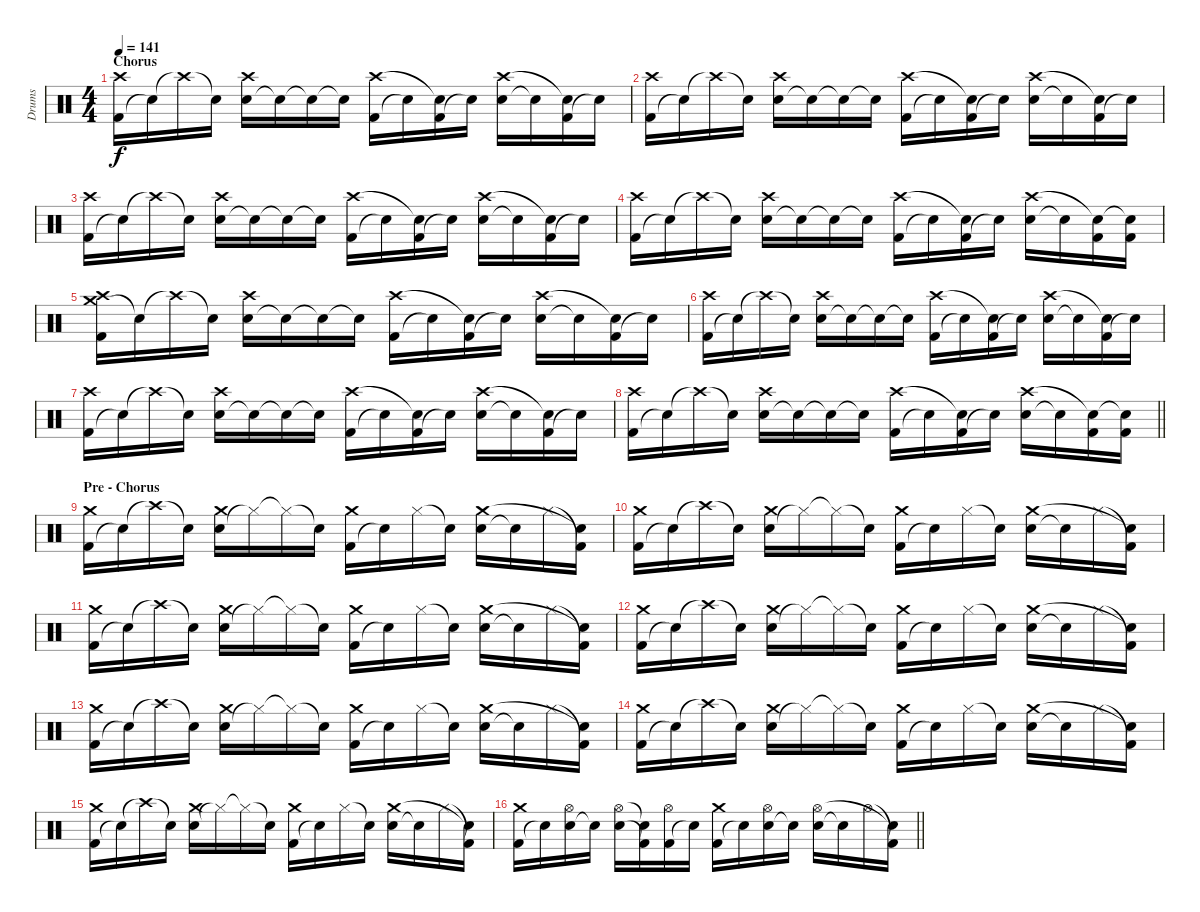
\track ("Drums" "Drums") {instrument percussion}
\staff {score}
\articulation defaults
\ts (4 4)
\section ("" "Chorus")
\tempo 141
\clef neutral
\ks c
("Kick (hit) 2" "Crash high (hit)").16{dy f} "Snare (hit)"{t}.16 "Crash high (hit)"{t}.16 "Snare (hit)"{t}.16 ("Snare (hit) 2" "Crash high (hit)").16 "Snare (hit)"{t}.16 "Snare (hit)"{t}.16 "Snare (hit)"{t}.16 ("Kick (hit) 2" "Crash high (hit)").16 "Snare (hit)"{t}.16 ("Kick (hit) 2" "Snare (hit)"{t}).16 "Snare (hit)"{t}.16 ("Snare (hit) 2" "Crash high (hit)").16 "Snare (hit)"{t}.16 ("Kick (hit) 2" "Snare (hit)"{t}).16 "Snare (hit)"{t}.16 |
("Kick (hit) 2" "Crash high (hit)").16 "Snare (hit)"{t}.16 "Crash high (hit)"{t}.16 "Snare (hit)"{t}.16 ("Snare (hit) 2" "Crash high (hit)").16 "Snare (hit)"{t}.16 "Snare (hit)"{t}.16 "Snare (hit)"{t}.16 ("Kick (hit) 2" "Crash high (hit)").16 "Snare (hit)"{t}.16 ("Kick (hit) 2" "Snare (hit)"{t}).16 "Snare (hit)"{t}.16 ("Snare (hit) 2" "Crash high (hit)").16 "Snare (hit)"{t}.16 ("Kick (hit) 2" "Snare (hit)"{t}).16 "Snare (hit)"{t}.16 |
("Kick (hit) 2" "Crash high (hit)").16 "Snare (hit)"{t}.16 "Crash high (hit)"{t}.16 "Snare (hit)"{t}.16 ("Snare (hit) 2" "Crash high (hit)").16 "Snare (hit)"{t}.16 "Snare (hit)"{t}.16 "Snare (hit)"{t}.16 ("Kick (hit) 2" "Crash high (hit)").16 "Snare (hit)"{t}.16 ("Kick (hit) 2" "Snare (hit)"{t}).16 "Snare (hit)"{t}.16 ("Snare (hit) 2" "Crash high (hit)").16 "Snare (hit)"{t}.16 ("Kick (hit) 2" "Snare (hit)"{t}).16 "Snare (hit)"{t}.16 |
("Kick (hit) 2" "Crash high (hit)").16 "Snare (hit)"{t}.16 "Crash high (hit)"{t}.16 "Snare (hit)"{t}.16 ("Snare (hit) 2" "Crash high (hit)").16 "Snare (hit)"{t}.16 "Snare (hit)"{t}.16 "Snare (hit)"{t}.16 ("Kick (hit) 2" "Crash high (hit)").16 "Snare (hit)"{t}.16 ("Kick (hit) 2" "Snare (hit)"{t}).16 "Snare (hit)"{t}.16 ("Snare (hit) 2" "Crash high (hit)").16 "Snare (hit)"{t}.16 ("Kick (hit) 2" "Snare (hit)"{t}).16 ("Kick (hit) 2" "Snare (hit)"{t}).16 |
("Crash medium (hit)" "Kick (hit) 2" "Crash high (hit)").16 "Snare (hit)"{t}.16 "Crash high (hit)"{t}.16 "Snare (hit)"{t}.16 ("Snare (hit) 2" "Crash high (hit)").16 "Snare (hit)"{t}.16 "Snare (hit)"{t}.16 "Snare (hit)"{t}.16 ("Kick (hit) 2" "Crash high (hit)").16 "Snare (hit)"{t}.16 ("Kick (hit) 2" "Snare (hit)"{t}).16 "Snare (hit)"{t}.16 ("Snare (hit) 2" "Crash high (hit)").16 "Snare (hit)"{t}.16 ("Kick (hit) 2" "Snare (hit)"{t}).16 "Snare (hit)"{t}.16 |
("Kick (hit) 2" "Crash high (hit)").16 "Snare (hit)"{t}.16 "Crash high (hit)"{t}.16 "Snare (hit)"{t}.16 ("Snare (hit) 2" "Crash high (hit)").16 "Snare (hit)"{t}.16 "Snare (hit)"{t}.16 "Snare (hit)"{t}.16 ("Kick (hit) 2" "Crash high (hit)").16 "Snare (hit)"{t}.16 ("Kick (hit) 2" "Snare (hit)"{t}).16 "Snare (hit)"{t}.16 ("Snare (hit) 2" "Crash high (hit)").16 "Snare (hit)"{t}.16 ("Kick (hit) 2" "Snare (hit)"{t}).16 "Snare (hit)"{t}.16 |
("Kick (hit) 2" "Crash high (hit)").16 "Snare (hit)"{t}.16 "Crash high (hit)"{t}.16 "Snare (hit)"{t}.16 ("Snare (hit) 2" "Crash high (hit)").16 "Snare (hit)"{t}.16 "Snare (hit)"{t}.16 "Snare (hit)"{t}.16 ("Kick (hit) 2" "Crash high (hit)").16 "Snare (hit)"{t}.16 ("Kick (hit) 2" "Snare (hit)"{t}).16 "Snare (hit)"{t}.16 ("Snare (hit) 2" "Crash high (hit)").16 "Snare (hit)"{t}.16 ("Kick (hit) 2" "Snare (hit)"{t}).16 "Snare (hit)"{t}.16 |
\barLineRight lightlight
("Kick (hit) 2" "Crash high (hit)").16 "Snare (hit)"{t}.16 "Crash high (hit)"{t}.16 "Snare (hit)"{t}.16 ("Snare (hit) 2" "Crash high (hit)").16 "Snare (hit)"{t}.16 "Snare (hit)"{t}.16 "Snare (hit)"{t}.16 ("Kick (hit) 2" "Crash high (hit)").16 "Snare (hit)"{t}.16 ("Kick (hit) 2" "Snare (hit)"{t}).16 "Snare (hit)"{t}.16 ("Snare (hit) 2" "Crash high (hit)").16 "Snare (hit)"{t}.16 ("Kick (hit) 2" "Snare (hit)"{t}).16 ("Kick (hit) 2" "Snare (hit)"{t}).16 |
\section ("" "Pre - Chorus")
("Kick (hit) 2" "Crash medium (hit)").16 "Snare (hit)"{t}.16 "Crash high (hit)"{t}.16 "Snare (hit)"{t}.16 ("Snare (hit) 2" "Crash medium (hit)").16 "Hi-Hat (closed)"{t}.16 "Hi-Hat (closed)"{t}.16 "Snare (hit)"{t}.16 ("Kick (hit) 2" "Crash medium (hit)").16 "Snare (hit)"{t}.16 "Hi-Hat (closed)".16 "Snare (hit)"{t}.16 ("Snare (hit) 2" "Crash medium (hit)").16 "Snare (hit)"{t}.16 "Hi-Hat (closed)".16 ("Kick (hit) 2"{t} "Snare (hit)"{t}).16 |
("Kick (hit) 2" "Crash medium (hit)").16 "Snare (hit)"{t}.16 "Crash high (hit)"{t}.16 "Snare (hit)"{t}.16 ("Snare (hit) 2" "Crash medium (hit)").16 "Hi-Hat (closed)"{t}.16 "Hi-Hat (closed)"{t}.16 "Snare (hit)"{t}.16 ("Kick (hit) 2" "Crash medium (hit)").16 "Snare (hit)"{t}.16 "Hi-Hat (closed)".16 "Snare (hit)"{t}.16 ("Snare (hit) 2" "Crash medium (hit)").16 "Snare (hit)"{t}.16 "Hi-Hat (closed)".16 ("Kick (hit) 2"{t} "Snare (hit)"{t}).16 |
("Kick (hit) 2" "Crash medium (hit)").16 "Snare (hit)"{t}.16 "Crash high (hit)"{t}.16 "Snare (hit)"{t}.16 ("Snare (hit) 2" "Crash medium (hit)").16 "Hi-Hat (closed)"{t}.16 "Hi-Hat (closed)"{t}.16 "Snare (hit)"{t}.16 ("Kick (hit) 2" "Crash medium (hit)").16 "Snare (hit)"{t}.16 "Hi-Hat (closed)".16 "Snare (hit)"{t}.16 ("Snare (hit) 2" "Crash medium (hit)").16 "Snare (hit)"{t}.16 "Hi-Hat (closed)".16 ("Kick (hit) 2"{t} "Snare (hit)"{t}).16 |
("Kick (hit) 2" "Crash medium (hit)").16 "Snare (hit)"{t}.16 "Crash high (hit)"{t}.16 "Snare (hit)"{t}.16 ("Snare (hit) 2" "Crash medium (hit)").16 "Hi-Hat (closed)"{t}.16 "Hi-Hat (closed)"{t}.16 "Snare (hit)"{t}.16 ("Kick (hit) 2" "Crash medium (hit)").16 "Snare (hit)"{t}.16 "Hi-Hat (closed)".16 "Snare (hit)"{t}.16 ("Snare (hit) 2" "Crash medium (hit)").16 "Snare (hit)"{t}.16 "Hi-Hat (closed)".16 ("Kick (hit) 2"{t} "Snare (hit)"{t}).16 |
("Kick (hit) 2" "Crash medium (hit)").16 "Snare (hit)"{t}.16 "Crash high (hit)"{t}.16 "Snare (hit)"{t}.16 ("Snare (hit) 2" "Crash medium (hit)").16 "Hi-Hat (closed)"{t}.16 "Hi-Hat (closed)"{t}.16 "Snare (hit)"{t}.16 ("Kick (hit) 2" "Crash medium (hit)").16 "Snare (hit)"{t}.16 "Hi-Hat (closed)".16 "Snare (hit)"{t}.16 ("Snare (hit) 2" "Crash medium (hit)").16 "Snare (hit)"{t}.16 "Hi-Hat (closed)".16 ("Kick (hit) 2"{t} "Snare (hit)"{t}).16 |
("Kick (hit) 2" "Crash medium (hit)").16 "Snare (hit)"{t}.16 "Crash high (hit)"{t}.16 "Snare (hit)"{t}.16 ("Snare (hit) 2" "Crash medium (hit)").16 "Hi-Hat (closed)"{t}.16 "Hi-Hat (closed)"{t}.16 "Snare (hit)"{t}.16 ("Kick (hit) 2" "Crash medium (hit)").16 "Snare (hit)"{t}.16 "Hi-Hat (closed)".16 "Snare (hit)"{t}.16 ("Snare (hit) 2" "Crash medium (hit)").16 "Snare (hit)"{t}.16 "Hi-Hat (closed)".16 ("Kick (hit) 2"{t} "Snare (hit)"{t}).16 |
("Kick (hit) 2" "Crash medium (hit)").16 "Snare (hit)"{t}.16 "Crash high (hit)"{t}.16 "Snare (hit)"{t}.16 ("Snare (hit) 2" "Crash medium (hit)").16 "Hi-Hat (closed)"{t}.16 "Hi-Hat (closed)"{t}.16 "Snare (hit)"{t}.16 ("Kick (hit) 2" "Crash medium (hit)").16 "Snare (hit)"{t}.16 "Hi-Hat (closed)".16 "Snare (hit)"{t}.16 ("Snare (hit) 2" "Crash medium (hit)").16 "Snare (hit)"{t}.16 "Hi-Hat (closed)".16 ("Kick (hit) 2"{t} "Snare (hit)"{t}).16 |
\barLineRight lightlight
("Kick (hit) 2" "Crash medium (hit)").16 "Snare (hit)"{t}.16 ("Snare (hit) 2" "Hi-Hat (open)").16 "Snare (hit)"{t}.16 ("Snare (hit) 2" "Hi-Hat (open)").16 ("Kick (hit) 2"{t} "Snare (hit)"{t}).16 ("Kick (hit) 2" "Hi-Hat (open)").16 "Snare (hit)"{t}.16 ("Kick (hit) 2" "Crash medium (hit)").16 "Snare (hit)"{t}.16 ("Snare (hit) 2" "Hi-Hat (open)").16 "Snare (hit)"{t}.16 ("Snare (hit) 2" "Hi-Hat (open)").16 "Snare (hit)"{t}.16 "Hi-Hat (open)".16 ("Kick (hit) 2"{t} "Snare (hit)"{t}).16
